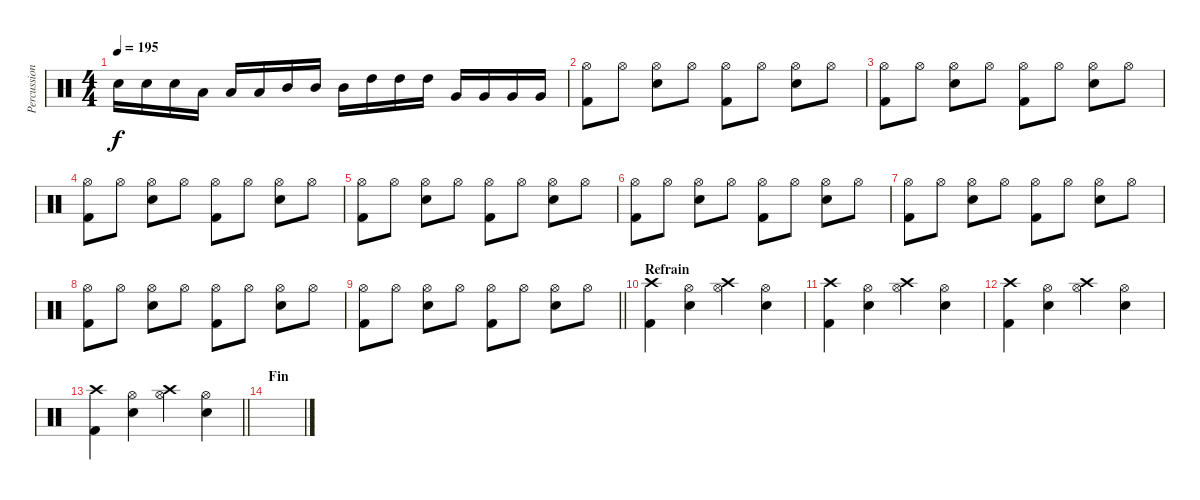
\track ("Percussions" "Percussion") {instrument percussion}
\staff {score}
\articulation defaults
\ts (4 4)
\tempo 195
\clef neutral
\ks c "Electric Snare (hit)".16{dy f} "Electric Snare (hit)".16 "Electric Snare (hit)".16 "Low Tom (hit)".16 "Low Tom (hit)".16 "Low Tom (hit)".16 "Mid Tom (hit)".16 "Mid Tom (hit)".16 "Mid Tom (hit)".16 "High Tom (hit)".16 "High Tom (hit)".16 "High Tom (hit)".16 "Very Low Tom (hit)".16 "Very Low Tom (hit)".16 "Very Low Tom (hit)".16 "Very Low Tom (hit)".16
|
("Hi-Hat (open)" "Kick (hit) 2").8 "Hi-Hat (open)".8 ("Hi-Hat (open)" "Electric Snare (hit)").8 "Hi-Hat (open)".8 ("Hi-Hat (open)" "Kick (hit) 2").8 "Hi-Hat (open)".8 ("Hi-Hat (open)" "Electric Snare (hit)").8 "Hi-Hat (open)".8 |
("Hi-Hat (open)" "Kick (hit) 2").8 "Hi-Hat (open)".8 ("Hi-Hat (open)" "Electric Snare (hit)").8 "Hi-Hat (open)".8 ("Hi-Hat (open)" "Kick (hit) 2").8 "Hi-Hat (open)".8 ("Hi-Hat (open)" "Electric Snare (hit)").8 "Hi-Hat (open)".8 |
("Hi-Hat (open)" "Kick (hit) 2").8 "Hi-Hat (open)".8 ("Hi-Hat (open)" "Electric Snare (hit)").8 "Hi-Hat (open)".8 ("Hi-Hat (open)" "Kick (hit) 2").8 "Hi-Hat (open)".8 ("Hi-Hat (open)" "Electric Snare (hit)").8 "Hi-Hat (open)".8 |
("Hi-Hat (open)" "Kick (hit) 2").8 "Hi-Hat (open)".8 ("Hi-Hat (open)" "Electric Snare (hit)").8 "Hi-Hat (open)".8 ("Hi-Hat (open)" "Kick (hit) 2").8 "Hi-Hat (open)".8 ("Hi-Hat (open)" "Electric Snare (hit)").8 "Hi-Hat (open)".8 |
("Hi-Hat (open)" "Kick (hit) 2").8 "Hi-Hat (open)".8 ("Hi-Hat (open)" "Electric Snare (hit)").8 "Hi-Hat (open)".8 ("Hi-Hat (open)" "Kick (hit) 2").8 "Hi-Hat (open)".8 ("Hi-Hat (open)" "Electric Snare (hit)").8 "Hi-Hat (open)".8 |
("Hi-Hat (open)" "Kick (hit) 2").8 "Hi-Hat (open)".8 ("Hi-Hat (open)" "Electric Snare (hit)").8 "Hi-Hat (open)".8 ("Hi-Hat (open)" "Kick (hit) 2").8 "Hi-Hat (open)".8 ("Hi-Hat (open)" "Electric Snare (hit)").8 "Hi-Hat (open)".8 |
("Hi-Hat (open)" "Kick (hit) 2").8 "Hi-Hat (open)".8 ("Hi-Hat (open)" "Electric Snare (hit)").8 "Hi-Hat (open)".8 ("Hi-Hat (open)" "Kick (hit) 2").8 "Hi-Hat (open)".8 ("Hi-Hat (open)" "Electric Snare (hit)").8 "Hi-Hat (open)".8 |
\barLineRight lightlight
("Hi-Hat (open)" "Kick (hit) 2").8 "Hi-Hat (open)".8 ("Hi-Hat (open)" "Electric Snare (hit)").8 "Hi-Hat (open)".8 ("Hi-Hat (open)" "Kick (hit) 2").8 "Hi-Hat (open)".8 ("Hi-Hat (open)" "Electric Snare (hit)").8 "Hi-Hat (open)".8 |
\section ("" "Refrain")
("Crash high (hit)" "Kick (hit) 2").4 ("Hi-Hat (open)" "Electric Snare (hit)").4 ("Crash high (hit)" "Hi-Hat (open)").4 ("Hi-Hat (open)" "Electric Snare (hit)").4 |
("Crash high (hit)" "Kick (hit) 2").4 ("Hi-Hat (open)" "Electric Snare (hit)").4 ("Crash high (hit)" "Hi-Hat (open)").4 ("Hi-Hat (open)" "Electric Snare (hit)").4 |
("Crash high (hit)" "Kick (hit) 2").4 ("Hi-Hat (open)" "Electric Snare (hit)").4 ("Crash high (hit)" "Hi-Hat (open)").4 ("Hi-Hat (open)" "Electric Snare (hit)").4 |
\barLineRight lightlight
("Crash high (hit)" "Kick (hit) 2").4 ("Hi-Hat (open)" "Electric Snare (hit)").4 ("Crash high (hit)" "Hi-Hat (open)").4 ("Hi-Hat (open)" "Electric Snare (hit)").4 |
\section ("" "Fin")
